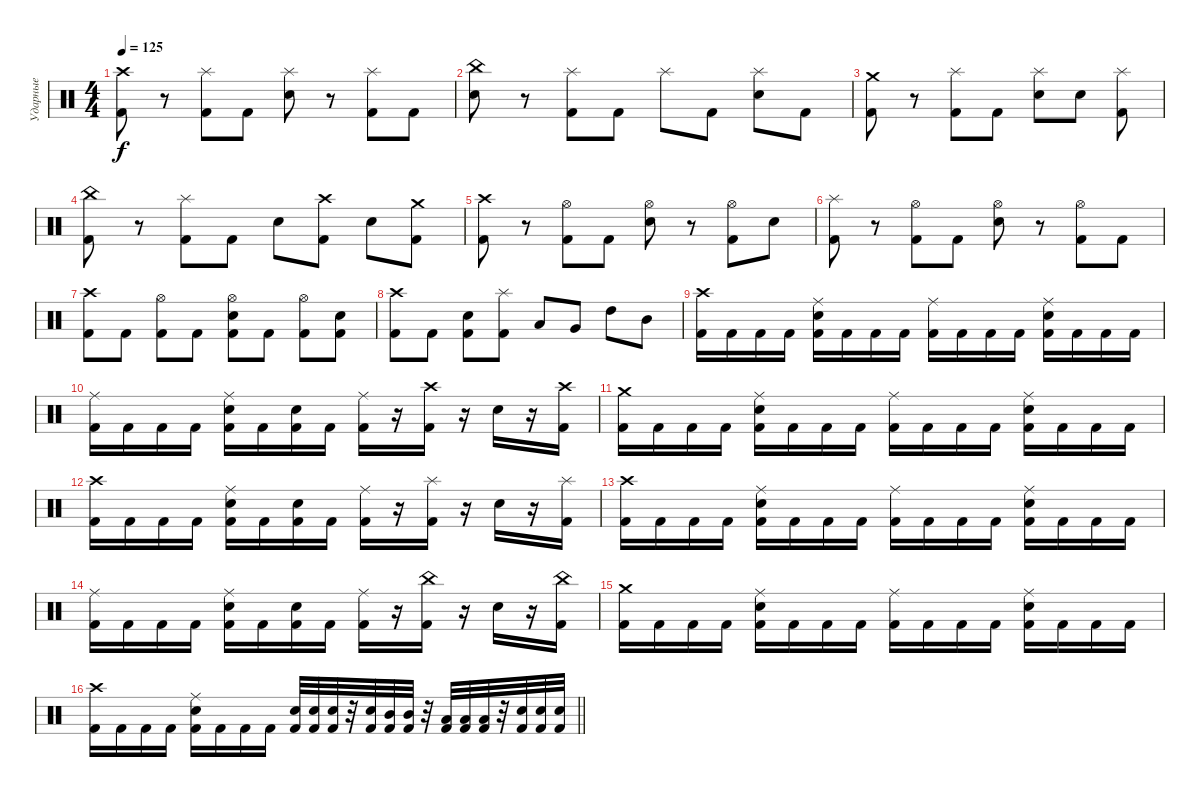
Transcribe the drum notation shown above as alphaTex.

\track ("Ударные" "Ударные") {instrument percussion}
\staff {score}
\articulation defaults
\ts (4 4)
\tempo 125
\clef neutral
\ks c
("Crash high (hit)" "Kick (hit) 2").8{dy f} r.8 ("Splash (hit)" "Kick (hit) 2").8 "Kick (hit) 2".8 ("Splash (hit)" "Snare (hit) 2").8 r.8 ("Splash (hit)" "Kick (hit) 2").8 "Kick (hit) 2".8 |
("China (hit)" "Snare (hit) 2").8 r.8 ("Splash (hit)" "Kick (hit) 2").8 "Kick (hit) 2".8 "Splash (hit)".8 "Kick (hit) 2".8 ("Splash (hit)" "Snare (hit) 2").8 "Kick (hit) 2".8 |
("Crash medium (hit)" "Kick (hit) 2").8 r.8 ("Splash (hit)" "Kick (hit) 2").8 "Kick (hit) 2".8 ("Splash (hit)" "Snare (hit) 2").8 "Snare (hit) 2".8 ("Splash (hit)" "Kick (hit) 2").8 |
("China (hit)" "Kick (hit) 2").8 r.8 ("Splash (hit)" "Kick (hit) 2").8 "Kick (hit) 2".8 "Snare (hit) 2".8 ("Crash high (hit)" "Kick (hit) 2").8 "Snare (hit) 2".8 ("Crash medium (hit)" "Kick (hit) 2").8 |
("Crash high (hit)" "Kick (hit) 2").8 r.8 ("Hi-Hat (open)" "Kick (hit) 2").8 "Kick (hit) 2".8 ("Hi-Hat (open)" "Snare (hit) 2").8 r.8 ("Hi-Hat (open)" "Kick (hit) 2").8 "Snare (hit) 2".8 |
("Splash (hit)" "Kick (hit) 2").8 r.8 ("Hi-Hat (open)" "Kick (hit) 2").8 "Kick (hit) 2".8 ("Hi-Hat (open)" "Snare (hit) 2").8 r.8 ("Hi-Hat (open)" "Kick (hit) 2").8 "Kick (hit) 2".8 |
("Crash high (hit)" "Kick (hit) 2").8 "Kick (hit) 2".8 ("Hi-Hat (open)" "Kick (hit) 2").8 "Kick (hit) 2".8 ("Hi-Hat (open)" "Snare (hit) 2" "Kick (hit) 2").8 "Kick (hit) 2".8 ("Hi-Hat (open)" "Kick (hit) 2").8 ("Snare (hit) 2" "Kick (hit) 2").8 |
("Crash high (hit)" "Kick (hit) 2").8 "Kick (hit) 2".8 ("Snare (hit) 2" "Kick (hit) 2").8 ("Splash (hit)" "Kick (hit) 2").8 "Low Tom (hit)".8 "Very Low Tom (hit)".8 "High Tom (hit)".8 "Mid Tom (hit)".8 |
("Crash high (hit)" "Kick (hit) 2").16 "Kick (hit) 2".16 "Kick (hit) 2".16 "Kick (hit) 2".16 ("Ride (middle)" "Snare (hit) 2" "Kick (hit) 2").16 "Kick (hit) 2".16 "Kick (hit) 2".16 "Kick (hit) 2".16 ("Ride (middle)" "Kick (hit) 2").16 "Kick (hit) 2".16 "Kick (hit) 2".16 "Kick (hit) 2".16 ("Ride (middle)" "Snare (hit) 2" "Kick (hit) 2").16 "Kick (hit) 2".16 "Kick (hit) 2".16 "Kick (hit) 2".16 |
("Ride (middle)" "Kick (hit) 2").16 "Kick (hit) 2".16 "Kick (hit) 2".16 "Kick (hit) 2".16 ("Ride (middle)" "Snare (hit) 2" "Kick (hit) 2").16 "Kick (hit) 2".16 ("Snare (hit) 2" "Kick (hit) 2").16 "Kick (hit) 2".16 ("Ride (middle)" "Kick (hit) 2").16 r.16 ("Crash high (hit)" "Kick (hit) 2").16 r.16 "Snare (hit) 2".16 r.16 ("Crash high (hit)" "Kick (hit) 2").16 |
("Crash medium (hit)" "Kick (hit) 2").16 "Kick (hit) 2".16 "Kick (hit) 2".16 "Kick (hit) 2".16 ("Ride (middle)" "Snare (hit) 2" "Kick (hit) 2").16 "Kick (hit) 2".16 "Kick (hit) 2".16 "Kick (hit) 2".16 ("Ride (middle)" "Kick (hit) 2").16 "Kick (hit) 2".16 "Kick (hit) 2".16 "Kick (hit) 2".16 ("Ride (middle)" "Snare (hit) 2" "Kick (hit) 2").16 "Kick (hit) 2".16 "Kick (hit) 2".16 "Kick (hit) 2".16 |
("Crash high (hit)" "Kick (hit) 2").16 "Kick (hit) 2".16 "Kick (hit) 2".16 "Kick (hit) 2".16 ("Ride (middle)" "Snare (hit) 2" "Kick (hit) 2").16 "Kick (hit) 2".16 ("Snare (hit) 2" "Kick (hit) 2").16 "Kick (hit) 2".16 ("Ride (middle)" "Kick (hit) 2").16 r.16 ("Splash (hit)" "Kick (hit) 2").16 r.16 "Snare (hit) 2".16 r.16 ("Splash (hit)" "Kick (hit) 2").16 |
("Crash high (hit)" "Kick (hit) 2").16 "Kick (hit) 2".16 "Kick (hit) 2".16 "Kick (hit) 2".16 ("Ride (middle)" "Snare (hit) 2" "Kick (hit) 2").16 "Kick (hit) 2".16 "Kick (hit) 2".16 "Kick (hit) 2".16 ("Ride (middle)" "Kick (hit) 2").16 "Kick (hit) 2".16 "Kick (hit) 2".16 "Kick (hit) 2".16 ("Ride (middle)" "Snare (hit) 2" "Kick (hit) 2").16 "Kick (hit) 2".16 "Kick (hit) 2".16 "Kick (hit) 2".16 |
("Ride (middle)" "Kick (hit) 2").16 "Kick (hit) 2".16 "Kick (hit) 2".16 "Kick (hit) 2".16 ("Ride (middle)" "Snare (hit) 2" "Kick (hit) 2").16 "Kick (hit) 2".16 ("Snare (hit) 2" "Kick (hit) 2").16 "Kick (hit) 2".16 ("Ride (middle)" "Kick (hit) 2").16 r.16 ("China (hit)" "Kick (hit) 2").16 r.16 "Snare (hit) 2".16 r.16 ("China (hit)" "Kick (hit) 2").16 |
("Crash medium (hit)" "Kick (hit) 2").16 "Kick (hit) 2".16 "Kick (hit) 2".16 "Kick (hit) 2".16 ("Ride (middle)" "Snare (hit) 2" "Kick (hit) 2").16 "Kick (hit) 2".16 "Kick (hit) 2".16 "Kick (hit) 2".16 ("Ride (middle)" "Kick (hit) 2").16 "Kick (hit) 2".16 "Kick (hit) 2".16 "Kick (hit) 2".16 ("Ride (middle)" "Snare (hit) 2" "Kick (hit) 2").16 "Kick (hit) 2".16 "Kick (hit) 2".16 "Kick (hit) 2".16 |
\barLineRight lightlight
("Crash high (hit)" "Kick (hit) 2").16 "Kick (hit) 2".16 "Kick (hit) 2".16 "Kick (hit) 2".16 ("Ride (middle)" "Snare (hit) 2" "Kick (hit) 2").16 "Kick (hit) 2".16 "Kick (hit) 2".16 "Kick (hit) 2".16 ("Snare (hit) 2" "Kick (hit) 2").32 ("Snare (hit) 2" "Kick (hit) 2").32 ("Snare (hit) 2" "Kick (hit) 2").32 r.32 ("Snare (hit) 2" "Kick (hit) 2").32 ("Mid Tom (hit)" "Kick (hit) 2").32 ("Mid Tom (hit)" "Kick (hit) 2").32 r.32 ("Low Tom (hit)" "Kick (hit) 2").32 ("Low Tom (hit)" "Kick (hit) 2").32 ("Low Tom (hit)" "Kick (hit) 2").32 r.32 ("Snare (hit) 2" "Kick (hit) 2").32 ("Snare (hit) 2" "Kick (hit) 2").32 ("Snare (hit) 2" "Kick (hit) 2").32
